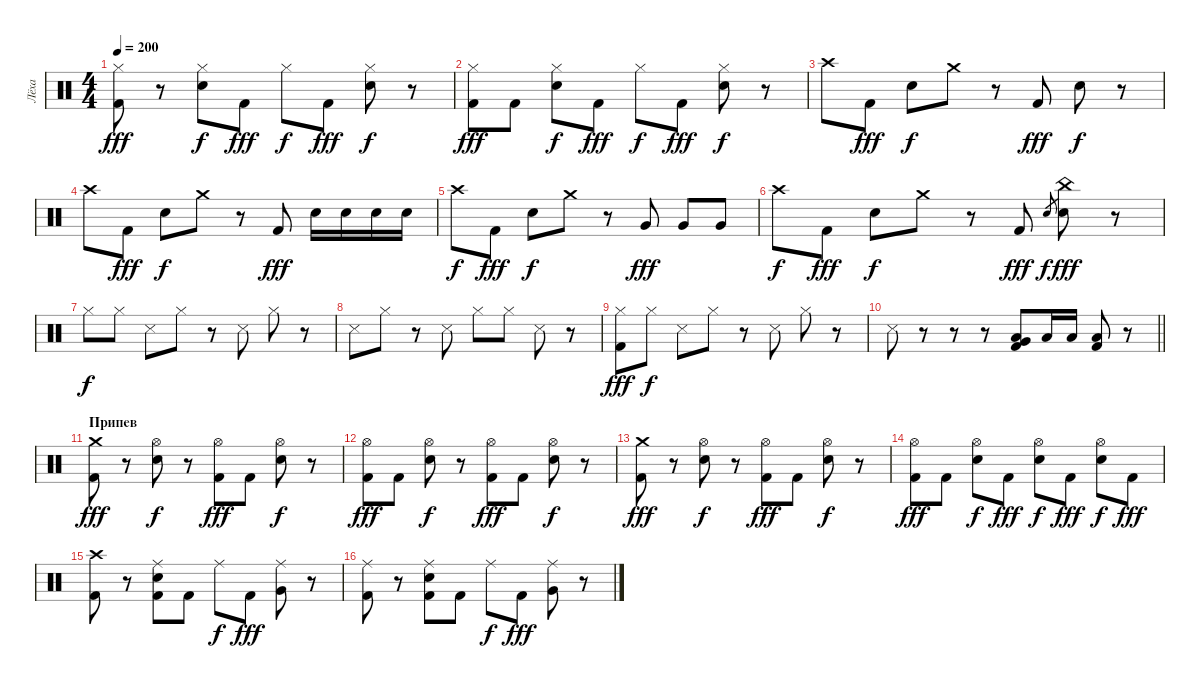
\track ("Лёха" "Лёха") {instrument percussion}
\staff {score}
\articulation defaults
\ts (4 4)
\tempo 200
\clef neutral
\ks c
("Hi-Hat (closed)" "Kick (hit) 2").8{dy fff} r.8 ("Hi-Hat (closed)" "Electric Snare (hit)").8{dy f} "Kick (hit) 2".8{dy fff} "Hi-Hat (closed)".8{dy f} "Kick (hit) 2".8{dy fff} ("Hi-Hat (closed)" "Electric Snare (hit)").8{dy f} r.8 |
("Hi-Hat (closed)" "Kick (hit) 2").8{dy fff} "Kick (hit) 2".8 ("Hi-Hat (closed)" "Electric Snare (hit)").8{dy f} "Kick (hit) 2".8{dy fff} "Hi-Hat (closed)".8{dy f} "Kick (hit) 2".8{dy fff} ("Hi-Hat (closed)" "Electric Snare (hit)").8{dy f} r.8 |
"Crash high (hit)".8 "Kick (hit) 2".8{dy fff} "Electric Snare (hit)".8{dy f} "Crash medium (hit)".8 r.8 "Kick (hit) 2".8{dy fff} "Electric Snare (hit)".8{dy f} r.8 |
"Crash high (hit)".8 "Kick (hit) 2".8{dy fff} "Electric Snare (hit)".8{dy f} "Crash medium (hit)".8 r.8 "Kick (hit) 2".8{dy fff} "Electric Snare (hit)".16 "Electric Snare (hit)".16 "Electric Snare (hit)".16 "Electric Snare (hit)".16 |
"Crash high (hit)".8{dy f} "Kick (hit) 2".8{dy fff} "Electric Snare (hit)".8{dy f} "Crash medium (hit)".8 r.8 "Very Low Tom (hit)".8{dy fff} "Very Low Tom (hit)".8 "Very Low Tom (hit)".8 |
"Crash high (hit)".8{dy f} "Kick (hit) 2".8{dy fff} "Electric Snare (hit)".8{dy f} "Crash medium (hit)".8 r.8 "Kick (hit) 2".8{dy fff} "Electric Snare (hit)".8{gr dy f} ("China (hit)" "Electric Snare (hit)").8{dy fff} r.8 |
"Hi-Hat (closed)".8{dy f} "Hi-Hat (closed)".8 "Snare (side stick) 3".8 "Hi-Hat (closed)".8 r.8 "Snare (side stick) 3".8 "Hi-Hat (closed)".8 r.8 |
"Snare (side stick) 3".8 "Hi-Hat (closed)".8 r.8 "Snare (side stick) 3".8 "Hi-Hat (closed)".8 "Hi-Hat (closed)".8 "Snare (side stick) 3".8 r.8 |
("Hi-Hat (closed)" "Kick (hit) 2").8{dy fff} "Hi-Hat (closed)".8{dy f} "Snare (side stick) 3".8 "Hi-Hat (closed)".8 r.8 "Snare (side stick) 3".8 "Hi-Hat (closed)".8 r.8 |
\barLineRight lightlight "Snare (side stick) 3".8
r.8 r.8 r.8 ("Low Floor Tom (hit)" "Very Low Tom (hit)" "Kick (hit) 2").8 "Low Floor Tom (hit)".16 "Low Floor Tom (hit)".16 ("Low Floor Tom (hit)" "Kick (hit) 2").8 r.8 |
\section ("" "Припев")
("Crash medium (hit)" "Kick (hit) 2").8{dy fff} r.8 ("Hi-Hat (open)" "Electric Snare (hit)").8{dy f} r.8 ("Hi-Hat (open)" "Kick (hit) 2").8{dy fff} "Kick (hit) 2".8 ("Hi-Hat (open)" "Electric Snare (hit)").8{dy f} r.8 |
("Hi-Hat (open)" "Kick (hit) 2").8{dy fff} "Kick (hit) 2".8 ("Hi-Hat (open)" "Electric Snare (hit)").8{dy f} r.8 ("Hi-Hat (open)" "Kick (hit) 2").8{dy fff} "Kick (hit) 2".8 ("Hi-Hat (open)" "Electric Snare (hit)").8{dy f} r.8 |
("Crash medium (hit)" "Kick (hit) 2").8{dy fff} r.8 ("Hi-Hat (open)" "Electric Snare (hit)").8{dy f} r.8 ("Hi-Hat (open)" "Kick (hit) 2").8{dy fff} "Kick (hit) 2".8 ("Hi-Hat (open)" "Electric Snare (hit)").8{dy f} r.8 |
("Hi-Hat (open)" "Kick (hit) 2").8{dy fff} "Kick (hit) 2".8 ("Hi-Hat (open)" "Electric Snare (hit)").8{dy f} "Kick (hit) 2".8{dy fff} ("Hi-Hat (open)" "Electric Snare (hit)").8{dy f} "Kick (hit) 2".8{dy fff} ("Hi-Hat (open)" "Electric Snare (hit)").8{dy f} "Kick (hit) 2".8{dy fff} |
("Crash high (hit)" "Kick (hit) 2").8 r.8 ("Ride (middle)" "Electric Snare (hit)" "Kick (hit) 2").8 "Kick (hit) 2".8 "Ride (middle)".8{dy f} "Kick (hit) 2".8{dy fff} ("Ride (middle)" "Very Low Tom (hit)").8 r.8 |
("Ride (middle)" "Kick (hit) 2").8 r.8 ("Ride (middle)" "Electric Snare (hit)" "Kick (hit) 2").8 "Kick (hit) 2".8 "Ride (middle)".8{dy f} "Kick (hit) 2".8{dy fff} ("Ride (middle)" "Very Low Tom (hit)").8 r.8
